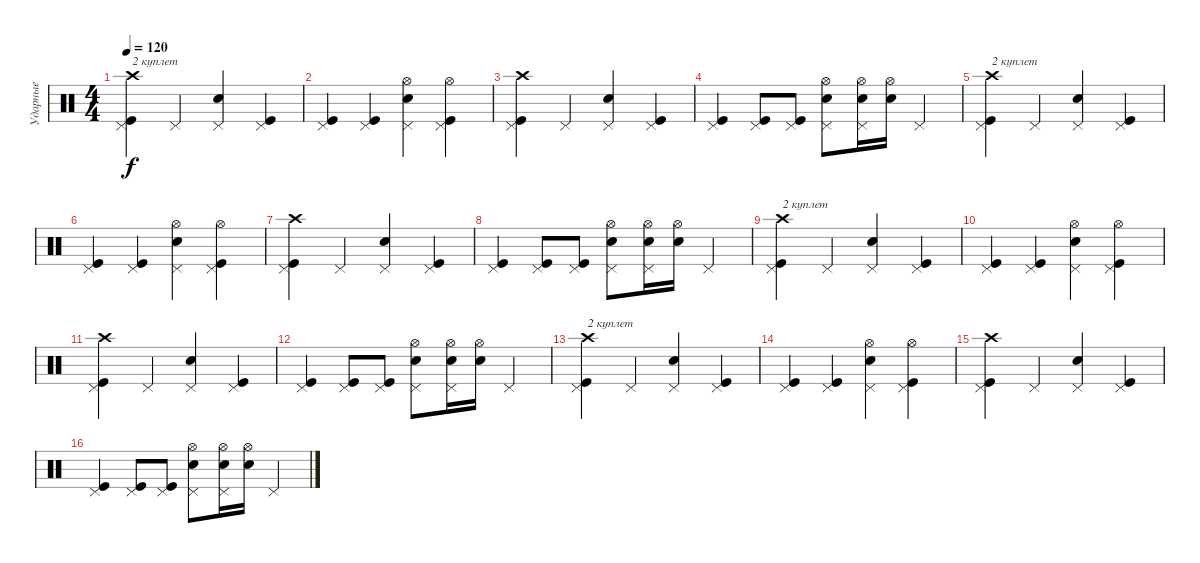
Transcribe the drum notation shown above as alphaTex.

\track ("Ударные" "Ударные") {instrument percussion}
\staff {score}
\articulation defaults
\ts (4 4)
\tempo 120
\clef neutral
\ks c
("Crash high (hit)" "Kick (hit)" "Pedal Hi-Hat (hit)").4{txt "2 куплет" dy f} "Pedal Hi-Hat (hit)".4 ("Snare (hit) 2" "Pedal Hi-Hat (hit)").4 ("Kick (hit)" "Pedal Hi-Hat (hit)").4 |
("Kick (hit)" "Pedal Hi-Hat (hit)").4 ("Kick (hit)" "Pedal Hi-Hat (hit)").4 ("Hi-Hat (open)" "Snare (hit) 2" "Pedal Hi-Hat (hit)").4 ("Hi-Hat (open)" "Kick (hit)" "Pedal Hi-Hat (hit)").4 |
("Crash high (hit)" "Kick (hit)" "Pedal Hi-Hat (hit)").4 "Pedal Hi-Hat (hit)".4 ("Snare (hit) 2" "Pedal Hi-Hat (hit)").4 ("Kick (hit)" "Pedal Hi-Hat (hit)").4 |
("Kick (hit)" "Pedal Hi-Hat (hit)").4 ("Kick (hit)" "Pedal Hi-Hat (hit)").8 ("Kick (hit)" "Pedal Hi-Hat (hit)").8 ("Hi-Hat (open)" "Snare (hit) 2" "Pedal Hi-Hat (hit)").8 ("Hi-Hat (open)" "Snare (hit) 2" "Pedal Hi-Hat (hit)").16 ("Hi-Hat (open)" "Snare (hit) 2").16 "Pedal Hi-Hat (hit)".4 |
("Crash high (hit)" "Kick (hit)" "Pedal Hi-Hat (hit)").4{txt "2 куплет"} "Pedal Hi-Hat (hit)".4 ("Snare (hit) 2" "Pedal Hi-Hat (hit)").4 ("Kick (hit)" "Pedal Hi-Hat (hit)").4 |
("Kick (hit)" "Pedal Hi-Hat (hit)").4 ("Kick (hit)" "Pedal Hi-Hat (hit)").4 ("Hi-Hat (open)" "Snare (hit) 2" "Pedal Hi-Hat (hit)").4 ("Hi-Hat (open)" "Kick (hit)" "Pedal Hi-Hat (hit)").4 |
("Crash high (hit)" "Kick (hit)" "Pedal Hi-Hat (hit)").4 "Pedal Hi-Hat (hit)".4 ("Snare (hit) 2" "Pedal Hi-Hat (hit)").4 ("Kick (hit)" "Pedal Hi-Hat (hit)").4 |
("Kick (hit)" "Pedal Hi-Hat (hit)").4 ("Kick (hit)" "Pedal Hi-Hat (hit)").8 ("Kick (hit)" "Pedal Hi-Hat (hit)").8 ("Hi-Hat (open)" "Snare (hit) 2" "Pedal Hi-Hat (hit)").8 ("Hi-Hat (open)" "Snare (hit) 2" "Pedal Hi-Hat (hit)").16 ("Hi-Hat (open)" "Snare (hit) 2").16 "Pedal Hi-Hat (hit)".4 |
("Crash high (hit)" "Kick (hit)" "Pedal Hi-Hat (hit)").4{txt "2 куплет"} "Pedal Hi-Hat (hit)".4 ("Snare (hit) 2" "Pedal Hi-Hat (hit)").4 ("Kick (hit)" "Pedal Hi-Hat (hit)").4 |
("Kick (hit)" "Pedal Hi-Hat (hit)").4 ("Kick (hit)" "Pedal Hi-Hat (hit)").4 ("Hi-Hat (open)" "Snare (hit) 2" "Pedal Hi-Hat (hit)").4 ("Hi-Hat (open)" "Kick (hit)" "Pedal Hi-Hat (hit)").4 |
("Crash high (hit)" "Kick (hit)" "Pedal Hi-Hat (hit)").4 "Pedal Hi-Hat (hit)".4 ("Snare (hit) 2" "Pedal Hi-Hat (hit)").4 ("Kick (hit)" "Pedal Hi-Hat (hit)").4 |
("Kick (hit)" "Pedal Hi-Hat (hit)").4 ("Kick (hit)" "Pedal Hi-Hat (hit)").8 ("Kick (hit)" "Pedal Hi-Hat (hit)").8 ("Hi-Hat (open)" "Snare (hit) 2" "Pedal Hi-Hat (hit)").8 ("Hi-Hat (open)" "Snare (hit) 2" "Pedal Hi-Hat (hit)").16 ("Hi-Hat (open)" "Snare (hit) 2").16 "Pedal Hi-Hat (hit)".4 |
("Crash high (hit)" "Kick (hit)" "Pedal Hi-Hat (hit)").4{txt "2 куплет"} "Pedal Hi-Hat (hit)".4 ("Snare (hit) 2" "Pedal Hi-Hat (hit)").4 ("Kick (hit)" "Pedal Hi-Hat (hit)").4 |
("Kick (hit)" "Pedal Hi-Hat (hit)").4 ("Kick (hit)" "Pedal Hi-Hat (hit)").4 ("Hi-Hat (open)" "Snare (hit) 2" "Pedal Hi-Hat (hit)").4 ("Hi-Hat (open)" "Kick (hit)" "Pedal Hi-Hat (hit)").4 |
("Crash high (hit)" "Kick (hit)" "Pedal Hi-Hat (hit)").4 "Pedal Hi-Hat (hit)".4 ("Snare (hit) 2" "Pedal Hi-Hat (hit)").4 ("Kick (hit)" "Pedal Hi-Hat (hit)").4 |
("Kick (hit)" "Pedal Hi-Hat (hit)").4 ("Kick (hit)" "Pedal Hi-Hat (hit)").8 ("Kick (hit)" "Pedal Hi-Hat (hit)").8 ("Hi-Hat (open)" "Snare (hit) 2" "Pedal Hi-Hat (hit)").8 ("Hi-Hat (open)" "Snare (hit) 2" "Pedal Hi-Hat (hit)").16 ("Hi-Hat (open)" "Snare (hit) 2").16 "Pedal Hi-Hat (hit)".4
